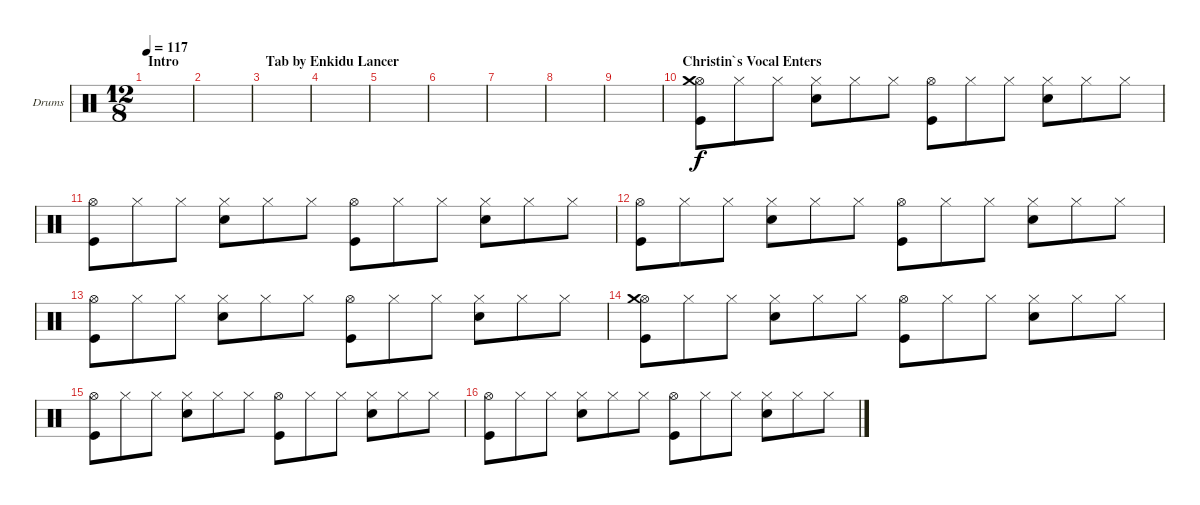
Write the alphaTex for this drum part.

\defaultSystemsLayout 4
\bracketExtendMode groupsimilarinstruments
\firstSystemTrackNameOrientation horizontal
\otherSystemsTrackNameOrientation horizontal
\track ("Drumkit" "Drums") {instrument percussion}
\staff {score}
\articulation defaults
\ts (12 8)
\section ("" "Intro")
\tempo 117
\clef neutral
\scale
0.474178
\ks c
|
\scale
0.262911 |
\section ("" "Tab by Enkidu Lancer")
\scale
0.262911 |
\scale
0.333333 |
\scale
0.333333 |
\scale
0.333333 |
\scale
0.333333 |
\scale
0.333333 |
\scale
0.333333 |
\section ("" "Christin`s Vocal Enters")
\scale
0.333333 ("Kick (hit)" "Hi-Hat (open)" "Crash medium (hit)").8 "Hi-Hat (closed)".8 "Hi-Hat (closed)".8 ("Snare (hit) 2" "Hi-Hat (closed)").8 "Hi-Hat (closed)".8 "Hi-Hat (closed)".8 ("Kick (hit)" "Hi-Hat (open)").8 "Hi-Hat (closed)".8 "Hi-Hat (closed)".8 ("Snare (hit) 2" "Hi-Hat (closed)").8 "Hi-Hat (closed)".8 "Hi-Hat (closed)".8 |
\scale
0.333333 ("Kick (hit)" "Hi-Hat (open)").8 "Hi-Hat (closed)".8 "Hi-Hat (closed)".8 ("Snare (hit) 2" "Hi-Hat (closed)").8 "Hi-Hat (closed)".8 "Hi-Hat (closed)".8 ("Kick (hit)" "Hi-Hat (open)").8 "Hi-Hat (closed)".8 "Hi-Hat (closed)".8 ("Snare (hit) 2" "Hi-Hat (closed)").8 "Hi-Hat (closed)".8 "Hi-Hat (closed)".8 |
\scale
0.333333 ("Kick (hit)" "Hi-Hat (open)").8 "Hi-Hat (closed)".8 "Hi-Hat (closed)".8 ("Snare (hit) 2" "Hi-Hat (closed)").8 "Hi-Hat (closed)".8 "Hi-Hat (closed)".8 ("Kick (hit)" "Hi-Hat (open)").8 "Hi-Hat (closed)".8 "Hi-Hat (closed)".8 ("Snare (hit) 2" "Hi-Hat (closed)").8 "Hi-Hat (closed)".8 "Hi-Hat (closed)".8 |
\scale
0.333333 ("Kick (hit)" "Hi-Hat (open)").8 "Hi-Hat (closed)".8 "Hi-Hat (closed)".8 ("Snare (hit) 2" "Hi-Hat (closed)").8 "Hi-Hat (closed)".8 "Hi-Hat (closed)".8 ("Kick (hit)" "Hi-Hat (open)").8 "Hi-Hat (closed)".8 "Hi-Hat (closed)".8 ("Snare (hit) 2" "Hi-Hat (closed)").8 "Hi-Hat (closed)".8 "Hi-Hat (closed)".8 |
\scale
0.333333 ("Kick (hit)" "Hi-Hat (open)" "Crash medium (hit)").8 "Hi-Hat (closed)".8 "Hi-Hat (closed)".8 ("Snare (hit) 2" "Hi-Hat (closed)").8 "Hi-Hat (closed)".8 "Hi-Hat (closed)".8 ("Kick (hit)" "Hi-Hat (open)").8 "Hi-Hat (closed)".8 "Hi-Hat (closed)".8 ("Snare (hit) 2" "Hi-Hat (closed)").8 "Hi-Hat (closed)".8 "Hi-Hat (closed)".8 |
\scale
0.333333 ("Kick (hit)" "Hi-Hat (open)").8 "Hi-Hat (closed)".8 "Hi-Hat (closed)".8 ("Snare (hit) 2" "Hi-Hat (closed)").8 "Hi-Hat (closed)".8 "Hi-Hat (closed)".8 ("Kick (hit)" "Hi-Hat (open)").8 "Hi-Hat (closed)".8 "Hi-Hat (closed)".8 ("Snare (hit) 2" "Hi-Hat (closed)").8 "Hi-Hat (closed)".8 "Hi-Hat (closed)".8 |
\scale
0.333333 ("Kick (hit)" "Hi-Hat (open)").8 "Hi-Hat (closed)".8 "Hi-Hat (closed)".8 ("Snare (hit) 2" "Hi-Hat (closed)").8 "Hi-Hat (closed)".8 "Hi-Hat (closed)".8 ("Kick (hit)" "Hi-Hat (open)").8 "Hi-Hat (closed)".8 "Hi-Hat (closed)".8 ("Snare (hit) 2" "Hi-Hat (closed)").8 "Hi-Hat (closed)".8 "Hi-Hat (closed)".8
